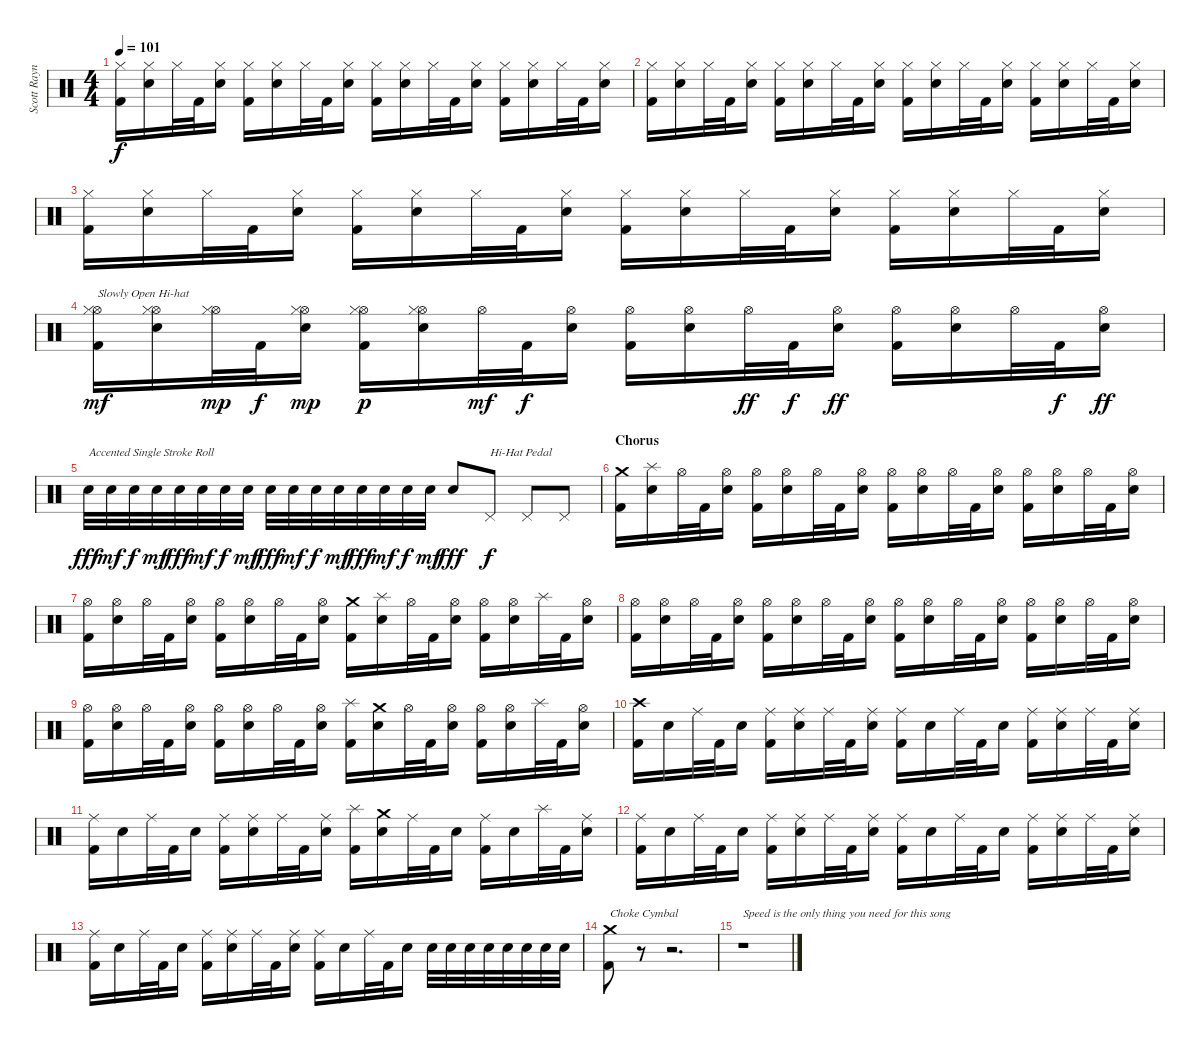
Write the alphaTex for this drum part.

\track ("Scott Raynor" "Scott Rayn") {instrument percussion}
\staff {score}
\articulation defaults
\ts (4 4)
\tempo 101
\clef neutral
\ks c
("Hi-Hat (closed)" "Kick (hit) 2").16{dy f} ("Hi-Hat (closed)" "Electric Snare (hit)").16 "Hi-Hat (closed)".32 "Kick (hit) 2".32 ("Hi-Hat (closed)" "Electric Snare (hit)").16 ("Hi-Hat (closed)" "Kick (hit) 2").16 ("Hi-Hat (closed)" "Electric Snare (hit)").16 "Hi-Hat (closed)".32 "Kick (hit) 2".32 ("Hi-Hat (closed)" "Electric Snare (hit)").16 ("Hi-Hat (closed)" "Kick (hit) 2").16 ("Hi-Hat (closed)" "Electric Snare (hit)").16 "Hi-Hat (closed)".32 "Kick (hit) 2".32 ("Hi-Hat (closed)" "Electric Snare (hit)").16 ("Hi-Hat (closed)" "Kick (hit) 2").16 ("Hi-Hat (closed)" "Electric Snare (hit)").16 "Hi-Hat (closed)".32 "Kick (hit) 2".32 ("Hi-Hat (closed)" "Electric Snare (hit)").16 |
("Hi-Hat (closed)" "Kick (hit) 2").16 ("Hi-Hat (closed)" "Electric Snare (hit)").16 "Hi-Hat (closed)".32 "Kick (hit) 2".32 ("Hi-Hat (closed)" "Electric Snare (hit)").16 ("Hi-Hat (closed)" "Kick (hit) 2").16 ("Hi-Hat (closed)" "Electric Snare (hit)").16 "Hi-Hat (closed)".32 "Kick (hit) 2".32 ("Hi-Hat (closed)" "Electric Snare (hit)").16 ("Hi-Hat (closed)" "Kick (hit) 2").16 ("Hi-Hat (closed)" "Electric Snare (hit)").16 "Hi-Hat (closed)".32 "Kick (hit) 2".32 ("Hi-Hat (closed)" "Electric Snare (hit)").16 ("Hi-Hat (closed)" "Kick (hit) 2").16 ("Hi-Hat (closed)" "Electric Snare (hit)").16 "Hi-Hat (closed)".32 "Kick (hit) 2".32 ("Hi-Hat (closed)" "Electric Snare (hit)").16 |
("Hi-Hat (closed)" "Kick (hit) 2").16 ("Hi-Hat (closed)" "Electric Snare (hit)").16 "Hi-Hat (closed)".32 "Kick (hit) 2".32 ("Hi-Hat (closed)" "Electric Snare (hit)").16 ("Hi-Hat (closed)" "Kick (hit) 2").16 ("Hi-Hat (closed)" "Electric Snare (hit)").16 "Hi-Hat (closed)".32 "Kick (hit) 2".32 ("Hi-Hat (closed)" "Electric Snare (hit)").16 ("Hi-Hat (closed)" "Kick (hit) 2").16 ("Hi-Hat (closed)" "Electric Snare (hit)").16 "Hi-Hat (closed)".32 "Kick (hit) 2".32 ("Hi-Hat (closed)" "Electric Snare (hit)").16 ("Hi-Hat (closed)" "Kick (hit) 2").16 ("Hi-Hat (closed)" "Electric Snare (hit)").16 "Hi-Hat (closed)".32 "Kick (hit) 2".32 ("Hi-Hat (closed)" "Electric Snare (hit)").16 |
("Hi-Hat (open)" "Hi-Hat (closed)" "Kick (hit) 2").16{txt "Slowly Open Hi-hat" dy mf} ("Hi-Hat (open)" "Hi-Hat (closed)" "Electric Snare (hit)").16 ("Hi-Hat (open)" "Hi-Hat (closed)").32{dy mp} "Kick (hit) 2".32{dy f} ("Hi-Hat (open)" "Hi-Hat (closed)" "Electric Snare (hit)").16{dy mp} ("Hi-Hat (open)" "Hi-Hat (closed)" "Kick (hit) 2").16{dy p} ("Hi-Hat (open)" "Hi-Hat (closed)" "Electric Snare (hit)").16 "Hi-Hat (open)".32{dy mf} "Kick (hit) 2".32{dy f} ("Hi-Hat (open)" "Electric Snare (hit)").16 ("Hi-Hat (open)" "Kick (hit) 2").16 ("Hi-Hat (open)" "Electric Snare (hit)").16 "Hi-Hat (open)".32{dy ff} "Kick (hit) 2".32{dy f} ("Hi-Hat (open)" "Electric Snare (hit)").16{dy ff} ("Hi-Hat (open)" "Kick (hit) 2").16 ("Hi-Hat (open)" "Electric Snare (hit)").16 "Hi-Hat (open)".32 "Kick (hit) 2".32{dy f} ("Hi-Hat (open)" "Electric Snare (hit)").16{dy ff} |
"Electric Snare (hit)".32{txt "Accented Single Stroke Roll" dy fff} "Electric Snare (hit)".32{dy mf} "Electric Snare (hit)".32{dy f} "Electric Snare (hit)".32{dy mf} "Electric Snare (hit)".32{dy fff} "Electric Snare (hit)".32{dy mf} "Electric Snare (hit)".32{dy f} "Electric Snare (hit)".32{dy mf} "Electric Snare (hit)".32{dy fff} "Electric Snare (hit)".32{dy mf} "Electric Snare (hit)".32{dy f} "Electric Snare (hit)".32{dy mf} "Electric Snare (hit)".32{dy fff} "Electric Snare (hit)".32{dy mf} "Electric Snare (hit)".32{dy f} "Electric Snare (hit)".32{dy mf} "Electric Snare (hit)".8{dy fff} "Pedal Hi-Hat (hit)".8{txt "Hi-Hat Pedal" dy f} "Pedal Hi-Hat (hit)".8 "Pedal Hi-Hat (hit)".8 |
\section ("" "Chorus")
("Crash medium (hit)" "Kick (hit) 2").16 ("Splash (hit)" "Electric Snare (hit)").16 "Hi-Hat (open)".32 "Kick (hit) 2".32 ("Hi-Hat (open)" "Electric Snare (hit)").16 ("Hi-Hat (open)" "Kick (hit) 2").16 ("Hi-Hat (open)" "Electric Snare (hit)").16 "Hi-Hat (open)".32 "Kick (hit) 2".32 ("Hi-Hat (open)" "Electric Snare (hit)").16 ("Hi-Hat (open)" "Kick (hit) 2").16 ("Hi-Hat (open)" "Electric Snare (hit)").16 "Hi-Hat (open)".32 "Kick (hit) 2".32 ("Hi-Hat (open)" "Electric Snare (hit)").16 ("Hi-Hat (open)" "Kick (hit) 2").16 ("Hi-Hat (open)" "Electric Snare (hit)").16 "Hi-Hat (open)".32 "Kick (hit) 2".32 ("Hi-Hat (open)" "Electric Snare (hit)").16 |
("Hi-Hat (open)" "Kick (hit) 2").16 ("Hi-Hat (open)" "Electric Snare (hit)").16 "Hi-Hat (open)".32 "Kick (hit) 2".32 ("Hi-Hat (open)" "Electric Snare (hit)").16 ("Hi-Hat (open)" "Kick (hit) 2").16 ("Hi-Hat (open)" "Electric Snare (hit)").16 "Hi-Hat (open)".32 "Kick (hit) 2".32 ("Hi-Hat (open)" "Electric Snare (hit)").16 ("Crash medium (hit)" "Kick (hit) 2").16 ("Splash (hit)" "Electric Snare (hit)").16 "Hi-Hat (open)".32 "Kick (hit) 2".32 ("Hi-Hat (open)" "Electric Snare (hit)").16 ("Hi-Hat (open)" "Kick (hit) 2").16 ("Hi-Hat (open)" "Electric Snare (hit)").16 "Splash (hit)".32 "Kick (hit) 2".32 ("Hi-Hat (open)" "Electric Snare (hit)").16 |
("Hi-Hat (open)" "Kick (hit) 2").16 ("Hi-Hat (open)" "Electric Snare (hit)").16 "Hi-Hat (open)".32 "Kick (hit) 2".32 ("Hi-Hat (open)" "Electric Snare (hit)").16 ("Hi-Hat (open)" "Kick (hit) 2").16 ("Hi-Hat (open)" "Electric Snare (hit)").16 "Hi-Hat (open)".32 "Kick (hit) 2".32 ("Hi-Hat (open)" "Electric Snare (hit)").16 ("Hi-Hat (open)" "Kick (hit) 2").16 ("Hi-Hat (open)" "Electric Snare (hit)").16 "Hi-Hat (open)".32 "Kick (hit) 2".32 ("Hi-Hat (open)" "Electric Snare (hit)").16 ("Hi-Hat (open)" "Kick (hit) 2").16 ("Hi-Hat (open)" "Electric Snare (hit)").16 "Hi-Hat (open)".32 "Kick (hit) 2".32 ("Hi-Hat (open)" "Electric Snare (hit)").16 |
("Hi-Hat (open)" "Kick (hit) 2").16 ("Hi-Hat (open)" "Electric Snare (hit)").16 "Hi-Hat (open)".32 "Kick (hit) 2".32 ("Hi-Hat (open)" "Electric Snare (hit)").16 ("Hi-Hat (open)" "Kick (hit) 2").16 ("Hi-Hat (open)" "Electric Snare (hit)").16 "Hi-Hat (open)".32 "Kick (hit) 2".32 ("Hi-Hat (open)" "Electric Snare (hit)").16 ("Splash (hit)" "Kick (hit) 2").16 ("Crash medium (hit)" "Electric Snare (hit)").16 "Hi-Hat (open)".32 "Kick (hit) 2".32 ("Hi-Hat (open)" "Electric Snare (hit)").16 ("Hi-Hat (open)" "Kick (hit) 2").16 ("Hi-Hat (open)" "Electric Snare (hit)").16 "Splash (hit)".32 "Kick (hit) 2".32 ("Hi-Hat (open)" "Electric Snare (hit)").16 |
("Crash high (hit)" "Kick (hit) 2").16 "Electric Snare (hit)".16 "Ride (middle)".32 "Kick (hit) 2".32 "Electric Snare (hit)".16 ("Ride (middle)" "Kick (hit) 2").16 ("Ride (middle)" "Electric Snare (hit)").16 "Ride (middle)".32 "Kick (hit) 2".32 ("Ride (middle)" "Electric Snare (hit)").16 ("Ride (middle)" "Kick (hit) 2").16 "Electric Snare (hit)".16 "Ride (middle)".32 "Kick (hit) 2".32 "Electric Snare (hit)".16 ("Ride (middle)" "Kick (hit) 2").16 ("Ride (middle)" "Electric Snare (hit)").16 "Ride (middle)".32 "Kick (hit) 2".32 ("Ride (middle)" "Electric Snare (hit)").16 |
("Ride (middle)" "Kick (hit) 2").16 "Electric Snare (hit)".16 "Ride (middle)".32 "Kick (hit) 2".32 "Electric Snare (hit)".16 ("Ride (middle)" "Kick (hit) 2").16 ("Ride (middle)" "Electric Snare (hit)").16 "Ride (middle)".32 "Kick (hit) 2".32 ("Ride (middle)" "Electric Snare (hit)").16 ("Splash (hit)" "Kick (hit) 2").16 ("Crash medium (hit)" "Electric Snare (hit)").16 "Ride (middle)".32 "Kick (hit) 2".32 "Electric Snare (hit)".16 ("Ride (middle)" "Kick (hit) 2").16 "Electric Snare (hit)".16 "Splash (hit)".32 "Kick (hit) 2".32 ("Ride (middle)" "Electric Snare (hit)").16 |
("Ride (middle)" "Kick (hit) 2").16 "Electric Snare (hit)".16 "Ride (middle)".32 "Kick (hit) 2".32 "Electric Snare (hit)".16 ("Ride (middle)" "Kick (hit) 2").16 ("Ride (middle)" "Electric Snare (hit)").16 "Ride (middle)".32 "Kick (hit) 2".32 ("Ride (middle)" "Electric Snare (hit)").16 ("Ride (middle)" "Kick (hit) 2").16 "Electric Snare (hit)".16 "Ride (middle)".32 "Kick (hit) 2".32 "Electric Snare (hit)".16 ("Ride (middle)" "Kick (hit) 2").16 ("Ride (middle)" "Electric Snare (hit)").16 "Ride (middle)".32 "Kick (hit) 2".32 ("Ride (middle)" "Electric Snare (hit)").16 |
("Ride (middle)" "Kick (hit) 2").16 "Electric Snare (hit)".16 "Ride (middle)".32 "Kick (hit) 2".32 "Electric Snare (hit)".16 ("Ride (middle)" "Kick (hit) 2").16 ("Ride (middle)" "Electric Snare (hit)").16 "Ride (middle)".32 "Kick (hit) 2".32 ("Ride (middle)" "Electric Snare (hit)").16 ("Ride (middle)" "Kick (hit) 2").16 "Electric Snare (hit)".16 "Ride (middle)".32 "Kick (hit) 2".32 "Electric Snare (hit)".16 "Electric Snare (hit)".32 "Electric Snare (hit)".32 "Electric Snare (hit)".32 "Electric Snare (hit)".32 "Electric Snare (hit)".32 "Electric Snare (hit)".32 "Electric Snare (hit)".32 "Electric Snare (hit)".32 |
("Crash medium (hit)" "Kick (hit) 2").8{txt "Choke Cymbal" volume 0} r.8 r.2{d} |
r.1{txt "Speed is the only thing you need for this song" volume 13}
